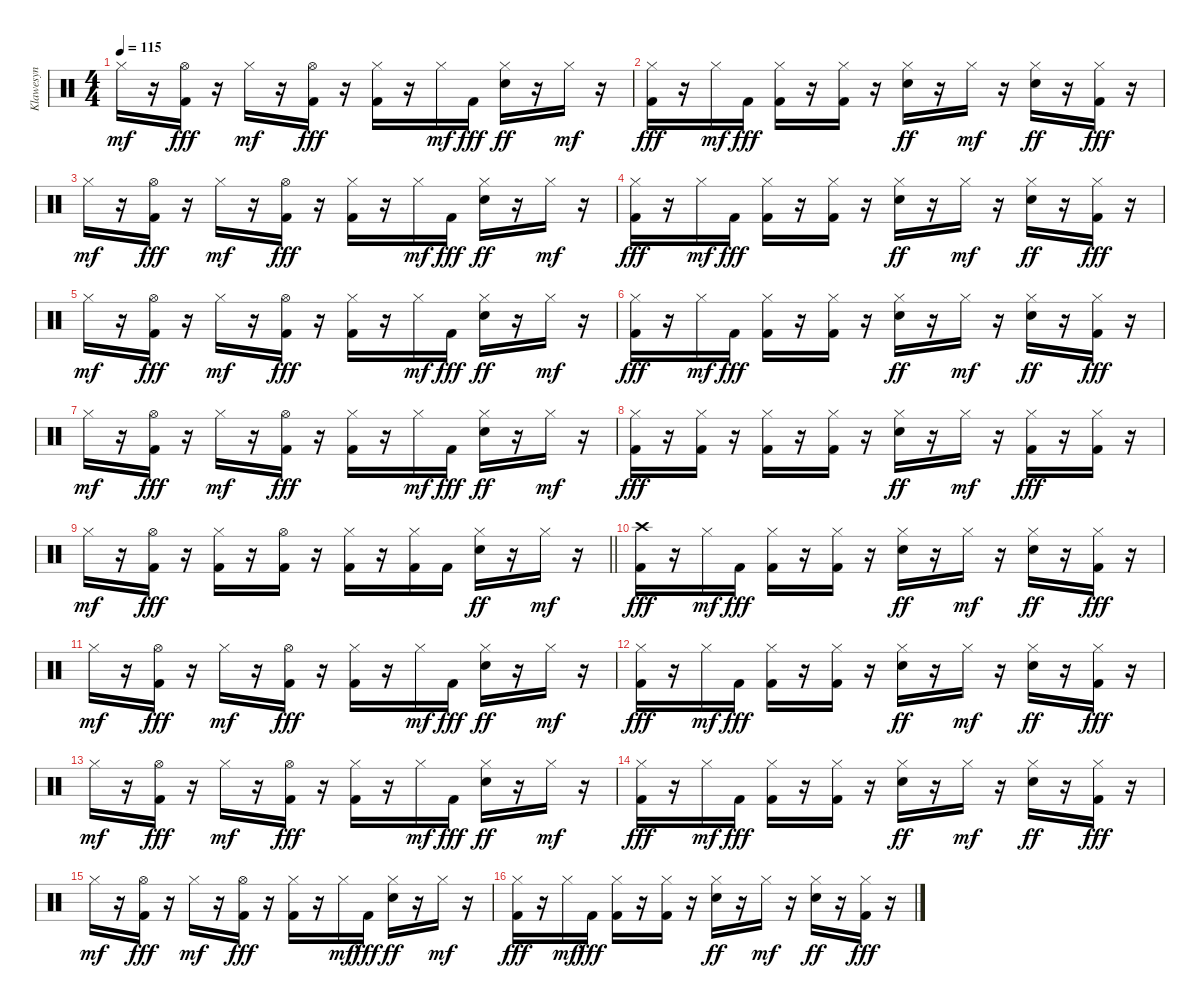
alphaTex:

\track ("Klawesyn" "Klawesyn") {instrument percussion}
\staff {score}
\articulation defaults
\ts (4 4)
\tempo 115
\clef neutral
\ks c "Hi-Hat (closed)".16{dy mf}
r.16 ("Hi-Hat (open)" "Kick (hit) 2").16{dy fff} r.16 "Hi-Hat (closed)".16{dy mf} r.16 ("Hi-Hat (open)" "Kick (hit) 2").16{dy fff} r.16 ("Hi-Hat (closed)" "Kick (hit) 2").16 r.16 "Hi-Hat (closed)".16{dy mf} "Kick (hit) 2".16{dy fff} ("Hi-Hat (closed)" "Electric Snare (hit)").16{dy ff} r.16 "Hi-Hat (closed)".16{dy mf} r.16 |
("Hi-Hat (closed)" "Kick (hit) 2").16{dy fff} r.16 "Hi-Hat (closed)".16{dy mf} "Kick (hit) 2".16{dy fff} ("Hi-Hat (closed)" "Kick (hit) 2").16 r.16 ("Hi-Hat (closed)" "Kick (hit) 2").16 r.16 ("Hi-Hat (closed)" "Electric Snare (hit)").16{dy ff} r.16 "Hi-Hat (closed)".16{dy mf} r.16 ("Hi-Hat (closed)" "Electric Snare (hit)").16{dy ff} r.16 ("Hi-Hat (closed)" "Kick (hit) 2").16{dy fff} r.16 |
"Hi-Hat (closed)".16{dy mf} r.16 ("Hi-Hat (open)" "Kick (hit) 2").16{dy fff} r.16 "Hi-Hat (closed)".16{dy mf} r.16 ("Hi-Hat (open)" "Kick (hit) 2").16{dy fff} r.16 ("Hi-Hat (closed)" "Kick (hit) 2").16 r.16 "Hi-Hat (closed)".16{dy mf} "Kick (hit) 2".16{dy fff} ("Hi-Hat (closed)" "Electric Snare (hit)").16{dy ff} r.16 "Hi-Hat (closed)".16{dy mf} r.16 |
("Hi-Hat (closed)" "Kick (hit) 2").16{dy fff} r.16 "Hi-Hat (closed)".16{dy mf} "Kick (hit) 2".16{dy fff} ("Hi-Hat (closed)" "Kick (hit) 2").16 r.16 ("Hi-Hat (closed)" "Kick (hit) 2").16 r.16 ("Hi-Hat (closed)" "Electric Snare (hit)").16{dy ff} r.16 "Hi-Hat (closed)".16{dy mf} r.16 ("Hi-Hat (closed)" "Electric Snare (hit)").16{dy ff} r.16 ("Hi-Hat (closed)" "Kick (hit) 2").16{dy fff} r.16 |
"Hi-Hat (closed)".16{dy mf} r.16 ("Hi-Hat (open)" "Kick (hit) 2").16{dy fff} r.16 "Hi-Hat (closed)".16{dy mf} r.16 ("Hi-Hat (open)" "Kick (hit) 2").16{dy fff} r.16 ("Hi-Hat (closed)" "Kick (hit) 2").16 r.16 "Hi-Hat (closed)".16{dy mf} "Kick (hit) 2".16{dy fff} ("Hi-Hat (closed)" "Electric Snare (hit)").16{dy ff} r.16 "Hi-Hat (closed)".16{dy mf} r.16 |
("Hi-Hat (closed)" "Kick (hit) 2").16{dy fff} r.16 "Hi-Hat (closed)".16{dy mf} "Kick (hit) 2".16{dy fff} ("Hi-Hat (closed)" "Kick (hit) 2").16 r.16 ("Hi-Hat (closed)" "Kick (hit) 2").16 r.16 ("Hi-Hat (closed)" "Electric Snare (hit)").16{dy ff} r.16 "Hi-Hat (closed)".16{dy mf} r.16 ("Hi-Hat (closed)" "Electric Snare (hit)").16{dy ff} r.16 ("Hi-Hat (closed)" "Kick (hit) 2").16{dy fff} r.16 |
"Hi-Hat (closed)".16{dy mf} r.16 ("Hi-Hat (open)" "Kick (hit) 2").16{dy fff} r.16 "Hi-Hat (closed)".16{dy mf} r.16 ("Hi-Hat (open)" "Kick (hit) 2").16{dy fff} r.16 ("Hi-Hat (closed)" "Kick (hit) 2").16 r.16 "Hi-Hat (closed)".16{dy mf} "Kick (hit) 2".16{dy fff} ("Hi-Hat (closed)" "Electric Snare (hit)").16{dy ff} r.16 "Hi-Hat (closed)".16{dy mf} r.16 |
("Hi-Hat (closed)" "Kick (hit) 2").16{dy fff} r.16 ("Hi-Hat (closed)" "Kick (hit) 2").16 r.16 ("Hi-Hat (closed)" "Kick (hit) 2").16 r.16 ("Hi-Hat (closed)" "Kick (hit) 2").16 r.16 ("Hi-Hat (closed)" "Electric Snare (hit)").16{dy ff} r.16 "Hi-Hat (closed)".16{dy mf} r.16 ("Hi-Hat (closed)" "Kick (hit) 2").16{dy fff} r.16 ("Hi-Hat (closed)" "Kick (hit) 2").16 r.16 |
\barLineRight lightlight "Hi-Hat (closed)".16{dy mf}
r.16 ("Hi-Hat (open)" "Kick (hit) 2").16{dy fff} r.16 ("Hi-Hat (closed)" "Kick (hit) 2").16 r.16 ("Hi-Hat (open)" "Kick (hit) 2").16 r.16 ("Hi-Hat (closed)" "Kick (hit) 2").16 r.16 ("Hi-Hat (closed)" "Kick (hit) 2").16 "Kick (hit) 2".16 ("Hi-Hat (closed)" "Electric Snare (hit)").16{dy ff} r.16 "Hi-Hat (closed)".16{dy mf} r.16 |
("Crash high (hit)" "Kick (hit) 2").16{dy fff} r.16 "Hi-Hat (closed)".16{dy mf} "Kick (hit) 2".16{dy fff} ("Hi-Hat (closed)" "Kick (hit) 2").16 r.16 ("Hi-Hat (closed)" "Kick (hit) 2").16 r.16 ("Hi-Hat (closed)" "Electric Snare (hit)").16{dy ff} r.16 "Hi-Hat (closed)".16{dy mf} r.16 ("Hi-Hat (closed)" "Electric Snare (hit)").16{dy ff} r.16 ("Hi-Hat (closed)" "Kick (hit) 2").16{dy fff} r.16 |
"Hi-Hat (closed)".16{dy mf} r.16 ("Hi-Hat (open)" "Kick (hit) 2").16{dy fff} r.16 "Hi-Hat (closed)".16{dy mf} r.16 ("Hi-Hat (open)" "Kick (hit) 2").16{dy fff} r.16 ("Hi-Hat (closed)" "Kick (hit) 2").16 r.16 "Hi-Hat (closed)".16{dy mf} "Kick (hit) 2".16{dy fff} ("Hi-Hat (closed)" "Electric Snare (hit)").16{dy ff} r.16 "Hi-Hat (closed)".16{dy mf} r.16 |
("Hi-Hat (closed)" "Kick (hit) 2").16{dy fff} r.16 "Hi-Hat (closed)".16{dy mf} "Kick (hit) 2".16{dy fff} ("Hi-Hat (closed)" "Kick (hit) 2").16 r.16 ("Hi-Hat (closed)" "Kick (hit) 2").16 r.16 ("Hi-Hat (closed)" "Electric Snare (hit)").16{dy ff} r.16 "Hi-Hat (closed)".16{dy mf} r.16 ("Hi-Hat (closed)" "Electric Snare (hit)").16{dy ff} r.16 ("Hi-Hat (closed)" "Kick (hit) 2").16{dy fff} r.16 |
"Hi-Hat (closed)".16{dy mf} r.16 ("Hi-Hat (open)" "Kick (hit) 2").16{dy fff} r.16 "Hi-Hat (closed)".16{dy mf} r.16 ("Hi-Hat (open)" "Kick (hit) 2").16{dy fff} r.16 ("Hi-Hat (closed)" "Kick (hit) 2").16 r.16 "Hi-Hat (closed)".16{dy mf} "Kick (hit) 2".16{dy fff} ("Hi-Hat (closed)" "Electric Snare (hit)").16{dy ff} r.16 "Hi-Hat (closed)".16{dy mf} r.16 |
("Hi-Hat (closed)" "Kick (hit) 2").16{dy fff} r.16 "Hi-Hat (closed)".16{dy mf} "Kick (hit) 2".16{dy fff} ("Hi-Hat (closed)" "Kick (hit) 2").16 r.16 ("Hi-Hat (closed)" "Kick (hit) 2").16 r.16 ("Hi-Hat (closed)" "Electric Snare (hit)").16{dy ff} r.16 "Hi-Hat (closed)".16{dy mf} r.16 ("Hi-Hat (closed)" "Electric Snare (hit)").16{dy ff} r.16 ("Hi-Hat (closed)" "Kick (hit) 2").16{dy fff} r.16 |
"Hi-Hat (closed)".16{dy mf} r.16 ("Hi-Hat (open)" "Kick (hit) 2").16{dy fff} r.16 "Hi-Hat (closed)".16{dy mf} r.16 ("Hi-Hat (open)" "Kick (hit) 2").16{dy fff} r.16 ("Hi-Hat (closed)" "Kick (hit) 2").16 r.16 "Hi-Hat (closed)".16{dy mf} "Kick (hit) 2".16{dy fff} ("Hi-Hat (closed)" "Electric Snare (hit)").16{dy ff} r.16 "Hi-Hat (closed)".16{dy mf} r.16 |
("Hi-Hat (closed)" "Kick (hit) 2").16{dy fff} r.16 "Hi-Hat (closed)".16{dy mf} "Kick (hit) 2".16{dy fff} ("Hi-Hat (closed)" "Kick (hit) 2").16 r.16 ("Hi-Hat (closed)" "Kick (hit) 2").16 r.16 ("Hi-Hat (closed)" "Electric Snare (hit)").16{dy ff} r.16 "Hi-Hat (closed)".16{dy mf} r.16 ("Hi-Hat (closed)" "Electric Snare (hit)").16{dy ff} r.16 ("Hi-Hat (closed)" "Kick (hit) 2").16{dy fff} r.16
